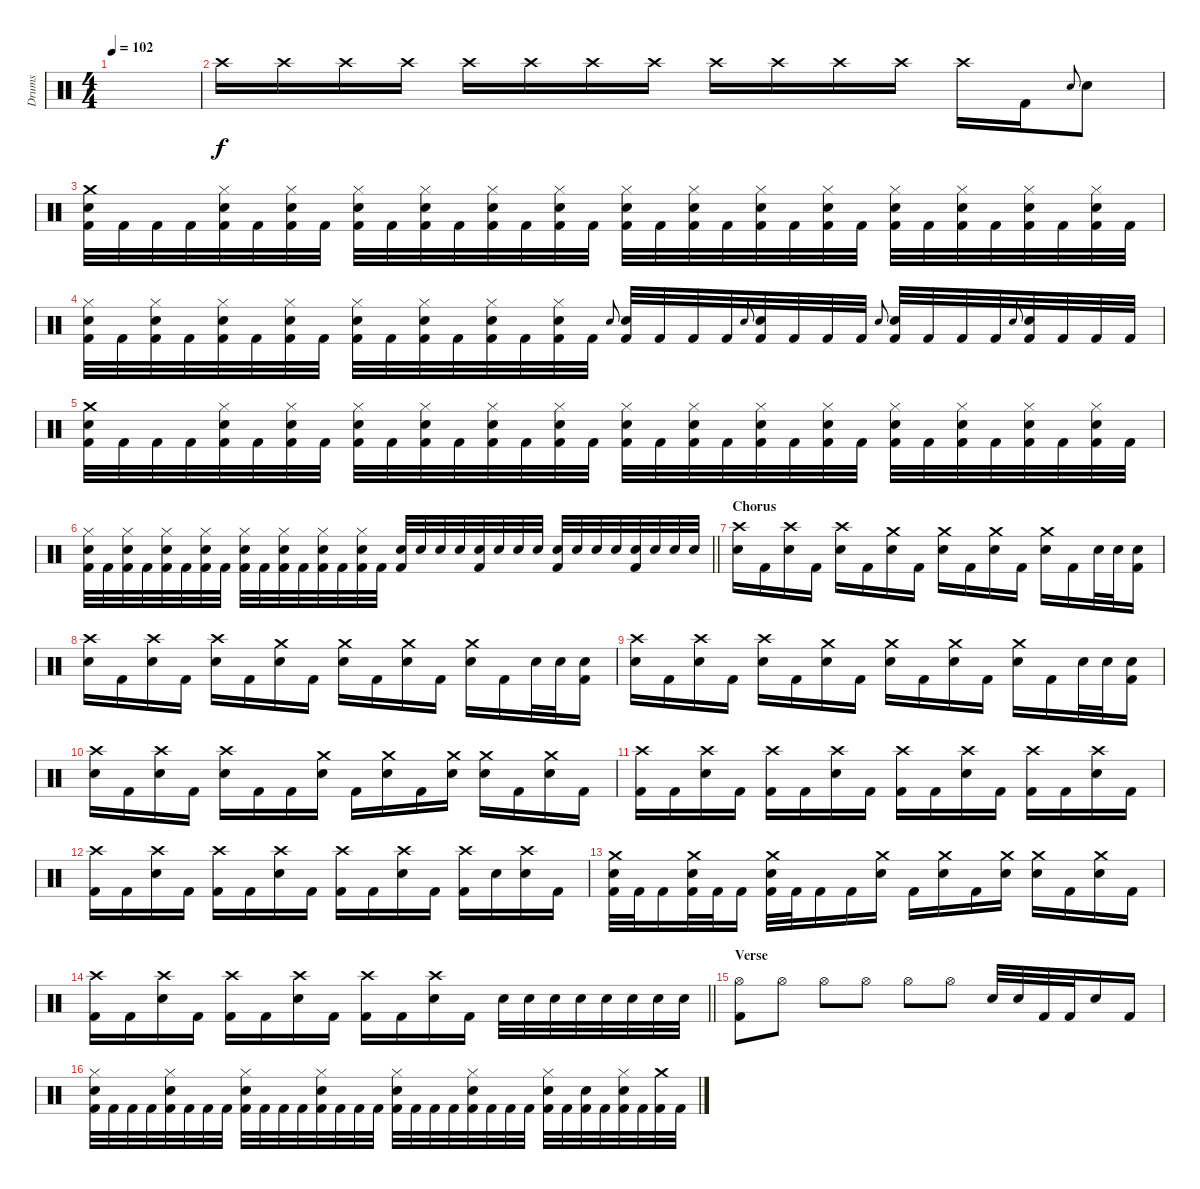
\track ("Drums" "Drums") {instrument percussion}
\staff {score}
\articulation defaults
\ts (4 4)
\tempo 102
\clef neutral
\ks c
|
"Crash high (hit)".16{volume 13} "Crash high (hit)".16 "Crash high (hit)".16 "Crash high (hit)".16 "Crash high (hit)".16 "Crash high (hit)".16 "Crash high (hit)".16 "Crash high (hit)".16 "Crash high (hit)".16 "Crash high (hit)".16 "Crash high (hit)".16 "Crash high (hit)".16 "Crash high (hit)".16 "Kick (hit) 2".16 "Snare (hit) 2".8{gr onbeat} "Snare (hit) 2".8 |
("Crash medium (hit)" "Snare (hit) 2" "Kick (hit) 2").32 "Kick (hit) 2".32 "Kick (hit) 2".32 "Kick (hit) 2".32 ("Hi-Hat (closed)" "Snare (hit) 2" "Kick (hit) 2").32 "Kick (hit) 2".32 ("Hi-Hat (closed)" "Snare (hit) 2" "Kick (hit) 2").32 "Kick (hit) 2".32 ("Hi-Hat (closed)" "Snare (hit) 2" "Kick (hit) 2").32 "Kick (hit) 2".32 ("Hi-Hat (closed)" "Snare (hit) 2" "Kick (hit) 2").32 "Kick (hit) 2".32 ("Hi-Hat (closed)" "Snare (hit) 2" "Kick (hit) 2").32 "Kick (hit) 2".32 ("Hi-Hat (closed)" "Snare (hit) 2" "Kick (hit) 2").32 "Kick (hit) 2".32 ("Hi-Hat (closed)" "Snare (hit) 2" "Kick (hit) 2").32 "Kick (hit) 2".32 ("Hi-Hat (closed)" "Snare (hit) 2" "Kick (hit) 2").32 "Kick (hit) 2".32 ("Hi-Hat (closed)" "Snare (hit) 2" "Kick (hit) 2").32 "Kick (hit) 2".32 ("Hi-Hat (closed)" "Snare (hit) 2" "Kick (hit) 2").32 "Kick (hit) 2".32 ("Hi-Hat (closed)" "Snare (hit) 2" "Kick (hit) 2").32 "Kick (hit) 2".32 ("Hi-Hat (closed)" "Snare (hit) 2" "Kick (hit) 2").32 "Kick (hit) 2".32 ("Hi-Hat (closed)" "Snare (hit) 2" "Kick (hit) 2").32 "Kick (hit) 2".32 ("Hi-Hat (closed)" "Snare (hit) 2" "Kick (hit) 2").32 "Kick (hit) 2".32 |
("Hi-Hat (closed)" "Snare (hit) 2" "Kick (hit) 2").32 "Kick (hit) 2".32 ("Hi-Hat (closed)" "Snare (hit) 2" "Kick (hit) 2").32 "Kick (hit) 2".32 ("Hi-Hat (closed)" "Snare (hit) 2" "Kick (hit) 2").32 "Kick (hit) 2".32 ("Hi-Hat (closed)" "Snare (hit) 2" "Kick (hit) 2").32 "Kick (hit) 2".32 ("Hi-Hat (closed)" "Snare (hit) 2" "Kick (hit) 2").32 "Kick (hit) 2".32 ("Hi-Hat (closed)" "Snare (hit) 2" "Kick (hit) 2").32 "Kick (hit) 2".32 ("Hi-Hat (closed)" "Snare (hit) 2" "Kick (hit) 2").32 "Kick (hit) 2".32 ("Hi-Hat (closed)" "Snare (hit) 2" "Kick (hit) 2").32 "Kick (hit) 2".32 "Snare (hit) 2".8{gr onbeat} ("Snare (hit) 2" "Kick (hit) 2").32 "Kick (hit) 2".32 "Kick (hit) 2".32 "Kick (hit) 2".32 "Snare (hit) 2".8{gr onbeat} ("Snare (hit) 2" "Kick (hit) 2").32 "Kick (hit) 2".32 "Kick (hit) 2".32 "Kick (hit) 2".32 "Snare (hit) 2".8{gr onbeat} ("Snare (hit) 2" "Kick (hit) 2").32 "Kick (hit) 2".32 "Kick (hit) 2".32 "Kick (hit) 2".32 "Snare (hit) 2".8{gr onbeat} ("Snare (hit) 2" "Kick (hit) 2").32 "Kick (hit) 2".32 "Kick (hit) 2".32 "Kick (hit) 2".32 |
("Crash medium (hit)" "Snare (hit) 2" "Kick (hit) 2").32 "Kick (hit) 2".32 "Kick (hit) 2".32 "Kick (hit) 2".32 ("Hi-Hat (closed)" "Snare (hit) 2" "Kick (hit) 2").32 "Kick (hit) 2".32 ("Hi-Hat (closed)" "Snare (hit) 2" "Kick (hit) 2").32 "Kick (hit) 2".32 ("Hi-Hat (closed)" "Snare (hit) 2" "Kick (hit) 2").32 "Kick (hit) 2".32 ("Hi-Hat (closed)" "Snare (hit) 2" "Kick (hit) 2").32 "Kick (hit) 2".32 ("Hi-Hat (closed)" "Snare (hit) 2" "Kick (hit) 2").32 "Kick (hit) 2".32 ("Hi-Hat (closed)" "Snare (hit) 2" "Kick (hit) 2").32 "Kick (hit) 2".32 ("Hi-Hat (closed)" "Snare (hit) 2" "Kick (hit) 2").32 "Kick (hit) 2".32 ("Hi-Hat (closed)" "Snare (hit) 2" "Kick (hit) 2").32 "Kick (hit) 2".32 ("Hi-Hat (closed)" "Snare (hit) 2" "Kick (hit) 2").32 "Kick (hit) 2".32 ("Hi-Hat (closed)" "Snare (hit) 2" "Kick (hit) 2").32 "Kick (hit) 2".32 ("Hi-Hat (closed)" "Snare (hit) 2" "Kick (hit) 2").32 "Kick (hit) 2".32 ("Hi-Hat (closed)" "Snare (hit) 2" "Kick (hit) 2").32 "Kick (hit) 2".32 ("Hi-Hat (closed)" "Snare (hit) 2" "Kick (hit) 2").32 "Kick (hit) 2".32 ("Hi-Hat (closed)" "Snare (hit) 2" "Kick (hit) 2").32 "Kick (hit) 2".32 |
\barLineRight lightlight
("Hi-Hat (closed)" "Snare (hit) 2" "Kick (hit) 2").32 "Kick (hit) 2".32 ("Hi-Hat (closed)" "Snare (hit) 2" "Kick (hit) 2").32 "Kick (hit) 2".32 ("Hi-Hat (closed)" "Snare (hit) 2" "Kick (hit) 2").32 "Kick (hit) 2".32 ("Hi-Hat (closed)" "Snare (hit) 2" "Kick (hit) 2").32 "Kick (hit) 2".32 ("Hi-Hat (closed)" "Snare (hit) 2" "Kick (hit) 2").32 "Kick (hit) 2".32 ("Hi-Hat (closed)" "Snare (hit) 2" "Kick (hit) 2").32 "Kick (hit) 2".32 ("Hi-Hat (closed)" "Snare (hit) 2" "Kick (hit) 2").32 "Kick (hit) 2".32 ("Hi-Hat (closed)" "Snare (hit) 2" "Kick (hit) 2").32 "Kick (hit) 2".32 ("Snare (hit) 2" "Kick (hit) 2").32 "Snare (hit) 2".32 "Snare (hit) 2".32 "Snare (hit) 2".32 ("Snare (hit) 2" "Kick (hit) 2").32 "Snare (hit) 2".32 "Snare (hit) 2".32 "Snare (hit) 2".32 ("Snare (hit) 2" "Kick (hit) 2").32 "Snare (hit) 2".32 "Snare (hit) 2".32 "Snare (hit) 2".32 ("Snare (hit) 2" "Kick (hit) 2").32 "Snare (hit) 2".32 "Snare (hit) 2".32 "Snare (hit) 2".32 |
\section ("" "Chorus")
("Crash high (hit)" "Snare (hit) 2").16 "Kick (hit) 2".16 ("Crash high (hit)" "Snare (hit) 2").16 "Kick (hit) 2".16 ("Crash high (hit)" "Snare (hit) 2").16 "Kick (hit) 2".16 ("Crash medium (hit)" "Snare (hit) 2").16 "Kick (hit) 2".16 ("Crash medium (hit)" "Snare (hit) 2").16 "Kick (hit) 2".16 ("Crash medium (hit)" "Snare (hit) 2").16 "Kick (hit) 2".16 ("Crash medium (hit)" "Snare (hit) 2").16 "Kick (hit) 2".16 "Snare (hit) 2".32 "Snare (hit) 2".32 ("Snare (hit) 2" "Kick (hit) 2").16 |
("Crash high (hit)" "Snare (hit) 2").16 "Kick (hit) 2".16 ("Crash high (hit)" "Snare (hit) 2").16 "Kick (hit) 2".16 ("Crash high (hit)" "Snare (hit) 2").16 "Kick (hit) 2".16 ("Crash medium (hit)" "Snare (hit) 2").16 "Kick (hit) 2".16 ("Crash medium (hit)" "Snare (hit) 2").16 "Kick (hit) 2".16 ("Crash medium (hit)" "Snare (hit) 2").16 "Kick (hit) 2".16 ("Crash medium (hit)" "Snare (hit) 2").16 "Kick (hit) 2".16 "Snare (hit) 2".32 "Snare (hit) 2".32 ("Snare (hit) 2" "Kick (hit) 2").16 |
("Crash high (hit)" "Snare (hit) 2").16 "Kick (hit) 2".16 ("Crash high (hit)" "Snare (hit) 2").16 "Kick (hit) 2".16 ("Crash high (hit)" "Snare (hit) 2").16 "Kick (hit) 2".16 ("Crash medium (hit)" "Snare (hit) 2").16 "Kick (hit) 2".16 ("Crash medium (hit)" "Snare (hit) 2").16 "Kick (hit) 2".16 ("Crash medium (hit)" "Snare (hit) 2").16 "Kick (hit) 2".16 ("Crash medium (hit)" "Snare (hit) 2").16 "Kick (hit) 2".16 "Snare (hit) 2".32 "Snare (hit) 2".32 ("Snare (hit) 2" "Kick (hit) 2").16 |
("Crash high (hit)" "Snare (hit) 2").16 "Kick (hit) 2".16 ("Crash high (hit)" "Snare (hit) 2").16 "Kick (hit) 2".16 ("Crash high (hit)" "Snare (hit) 2").16 "Kick (hit) 2".16 "Kick (hit) 2".16 ("Crash medium (hit)" "Snare (hit) 2").16 "Kick (hit) 2".16 ("Crash medium (hit)" "Snare (hit) 2").16 "Kick (hit) 2".16 ("Crash medium (hit)" "Snare (hit) 2").16 ("Crash medium (hit)" "Snare (hit) 2").16 "Kick (hit) 2".16 ("Crash medium (hit)" "Snare (hit) 2").16 "Kick (hit) 2".16 |
("Crash high (hit)" "Kick (hit) 2").16 "Kick (hit) 2".16 ("Crash high (hit)" "Snare (hit) 2").16 "Kick (hit) 2".16 ("Crash high (hit)" "Kick (hit) 2").16 "Kick (hit) 2".16 ("Crash high (hit)" "Snare (hit) 2").16 "Kick (hit) 2".16 ("Crash high (hit)" "Kick (hit) 2").16 "Kick (hit) 2".16 ("Crash high (hit)" "Snare (hit) 2").16 "Kick (hit) 2".16 ("Crash high (hit)" "Kick (hit) 2").16 "Kick (hit) 2".16 ("Crash high (hit)" "Snare (hit) 2").16 "Kick (hit) 2".16 |
("Crash high (hit)" "Kick (hit) 2").16 "Kick (hit) 2".16 ("Crash high (hit)" "Snare (hit) 2").16 "Kick (hit) 2".16 ("Crash high (hit)" "Kick (hit) 2").16 "Kick (hit) 2".16 ("Crash high (hit)" "Snare (hit) 2").16 "Kick (hit) 2".16 ("Crash high (hit)" "Kick (hit) 2").16 "Kick (hit) 2".16 ("Crash high (hit)" "Snare (hit) 2").16 "Kick (hit) 2".16 ("Crash high (hit)" "Kick (hit) 2").16 "Snare (hit) 2".16 ("Crash high (hit)" "Snare (hit) 2").16 "Kick (hit) 2".16 |
("Crash medium (hit)" "Snare (hit) 2" "Kick (hit) 2").32 "Kick (hit) 2".32 "Kick (hit) 2".16 ("Crash medium (hit)" "Snare (hit) 2" "Kick (hit) 2").32 "Kick (hit) 2".32 "Kick (hit) 2".16 ("Crash medium (hit)" "Snare (hit) 2" "Kick (hit) 2").32 "Kick (hit) 2".32 "Kick (hit) 2".16 "Kick (hit) 2".16 ("Crash medium (hit)" "Snare (hit) 2").16 "Kick (hit) 2".16 ("Crash medium (hit)" "Snare (hit) 2").16 "Kick (hit) 2".16 ("Crash medium (hit)" "Snare (hit) 2").16 ("Crash medium (hit)" "Snare (hit) 2").16 "Kick (hit) 2".16 ("Crash medium (hit)" "Snare (hit) 2").16 "Kick (hit) 2".16 |
\barLineRight lightlight
("Crash high (hit)" "Kick (hit) 2").16 "Kick (hit) 2".16 ("Crash high (hit)" "Snare (hit) 2").16 "Kick (hit) 2".16 ("Crash high (hit)" "Kick (hit) 2").16 "Kick (hit) 2".16 ("Crash high (hit)" "Snare (hit) 2").16 "Kick (hit) 2".16 ("Crash high (hit)" "Kick (hit) 2").16 "Kick (hit) 2".16 ("Crash high (hit)" "Snare (hit) 2").16 "Kick (hit) 2".16 "Snare (hit) 2".32 "Snare (hit) 2".32 "Snare (hit) 2".32 "Snare (hit) 2".32 "Snare (hit) 2".32 "Snare (hit) 2".32 "Snare (hit) 2".32 "Snare (hit) 2".32 |
\section ("" "Verse")
("Hi-Hat (open)" "Kick (hit) 2").8 "Hi-Hat (open)".8 "Hi-Hat (open)".8 "Hi-Hat (open)".8 "Hi-Hat (open)".8 "Hi-Hat (open)".8 "Snare (hit) 2".32 "Snare (hit) 2".32 "Kick (hit) 2".32 "Kick (hit) 2".32 "Snare (hit) 2".16 "Kick (hit) 2".16 |
("Hi-Hat (closed)" "Snare (hit) 2" "Kick (hit) 2").32 "Kick (hit) 2".32 "Kick (hit) 2".32 "Kick (hit) 2".32 ("Hi-Hat (closed)" "Snare (hit) 2" "Kick (hit) 2").32 "Kick (hit) 2".32 "Kick (hit) 2".32 "Kick (hit) 2".32 ("Hi-Hat (closed)" "Snare (hit) 2" "Kick (hit) 2").32 "Kick (hit) 2".32 "Kick (hit) 2".32 "Kick (hit) 2".32 ("Hi-Hat (closed)" "Snare (hit) 2" "Kick (hit) 2").32 "Kick (hit) 2".32 "Kick (hit) 2".32 "Kick (hit) 2".32 ("Hi-Hat (closed)" "Snare (hit) 2" "Kick (hit) 2").32 "Kick (hit) 2".32 "Kick (hit) 2".32 "Kick (hit) 2".32 ("Hi-Hat (closed)" "Snare (hit) 2" "Kick (hit) 2").32 "Kick (hit) 2".32 "Kick (hit) 2".32 "Kick (hit) 2".32 ("Hi-Hat (closed)" "Snare (hit) 2" "Kick (hit) 2").32 "Kick (hit) 2".32 ("Snare (hit) 2" "Kick (hit) 2").32 "Kick (hit) 2".32 ("Hi-Hat (closed)" "Snare (hit) 2" "Kick (hit) 2").32 "Kick (hit) 2".32 ("Crash medium (hit)" "Kick (hit) 2").32 "Kick (hit) 2".32
